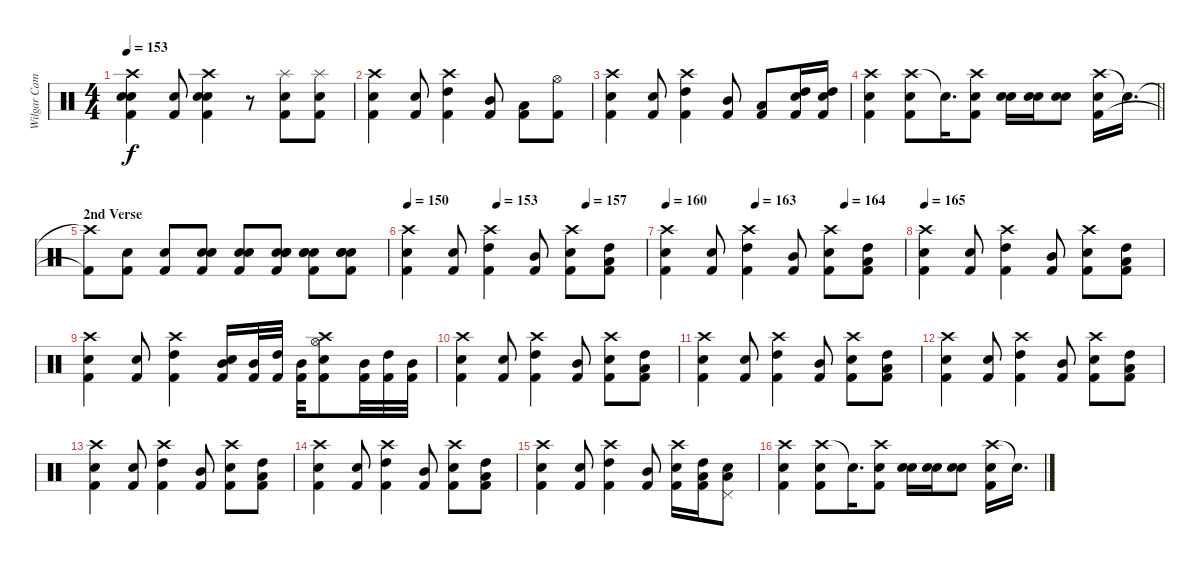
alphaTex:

\track ("Wilgar Campbell" "Wilgar Cam") {instrument percussion}
\staff {score}
\articulation defaults
\ts (4 4)
\tempo 153
\clef neutral
\ks c
("Crash high (hit)" "Snare (hit) 2" "Snare (hit) 2" "Kick (hit) 2").4{dy f} ("Electric Snare (hit)" "Kick (hit) 2").8 ("Crash high (hit)" "Snare (hit) 2" "Snare (hit) 2" "Kick (hit) 2").4 r.8 ("Splash (hit)" "Kick (hit) 2" "Electric Snare (hit)").8 ("Splash (hit)" "Snare (hit) 2" "Kick (hit) 2").8 |
("Crash high (hit)" "Electric Snare (hit)" "Kick (hit) 2").4 ("Snare (hit) 2" "Kick (hit) 2").8 ("Crash high (hit)" "High Tom (hit)" "Kick (hit) 2").4 ("Mid Tom (hit)" "Kick (hit) 2").8 ("Low Tom (hit)" "Kick (hit) 2").8 ("Hi-Hat (open)" "Kick (hit) 2").8 |
("Crash high (hit)" "Electric Snare (hit)" "Kick (hit) 2").4 ("Snare (hit) 2" "Kick (hit) 2").8 ("Crash high (hit)" "High Tom (hit)" "Kick (hit) 2").4 ("Mid Tom (hit)" "Kick (hit) 2").8 ("Low Tom (hit)" "Kick (hit) 2").8 ("High Tom (hit)" "Electric Snare (hit)" "Kick (hit) 2").16 ("High Tom (hit)" "Electric Snare (hit)" "Kick (hit) 2").16 |
\barLineRight lightlight
("Crash high (hit)" "Kick (hit) 2" "Snare (hit) 2").4 ("Crash high (hit)" "Kick (hit) 2" "Snare (hit) 2").8 "Snare (hit)"{t}.16{d} ("Crash high (hit)" "Electric Snare (hit)" "Kick (hit) 2").8 ("Snare (hit) 2" "Snare (hit) 2").16 ("Electric Snare (hit)" "Electric Snare (hit)").16 ("Snare (hit) 2" "Snare (hit) 2").8 ("Crash high (hit)" "Kick (hit) 2" "Electric Snare (hit)").16 "Snare (hit)"{t}.16{d} |
\section ("" "2nd Verse")
("Crash high (hit)"{t} "Kick (hit) 2"{t}).8 ("Kick (hit) 2" "Electric Snare (hit)").8 ("Kick (hit) 2" "Electric Snare (hit)").8 ("Kick (hit) 2" "Electric Snare (hit)" "Electric Snare (hit)").8 ("Kick (hit) 2" "Electric Snare (hit)" "Electric Snare (hit)").8 ("Kick (hit) 2" "Electric Snare (hit)" "Electric Snare (hit)" "Snare (hit) 2").8 ("Kick (hit) 2" "Electric Snare (hit)" "Electric Snare (hit)" "Snare (hit) 2").8 ("Kick (hit) 2" "Electric Snare (hit)" "Electric Snare (hit)" "Snare (hit) 2").8 |
\tempo 150
\tempo (153 0.375)
\tempo (157 0.75)
("Crash high (hit)" "Electric Snare (hit)" "Kick (hit) 2").4 ("Snare (hit) 2" "Kick (hit) 2").8 ("Crash high (hit)" "High Tom (hit)" "Kick (hit) 2").4 ("Mid Tom (hit)" "Kick (hit) 2").8 ("Crash high (hit)" "Electric Snare (hit)" "Kick (hit) 2").8 ("High Tom (hit)" "Kick (hit) 2" "Low Tom (hit)").8 |
\tempo 160
\tempo (163 0.375)
\tempo (164 0.75)
("Crash high (hit)" "Electric Snare (hit)" "Kick (hit) 2").4 ("Snare (hit) 2" "Kick (hit) 2").8 ("Crash high (hit)" "High Tom (hit)" "Kick (hit) 2").4 ("Mid Tom (hit)" "Kick (hit) 2").8 ("Crash high (hit)" "Electric Snare (hit)" "Kick (hit) 2").8 ("High Tom (hit)" "Kick (hit) 2" "Low Tom (hit)").8 |
\tempo 165
("Crash high (hit)" "Electric Snare (hit)" "Kick (hit) 2").4 ("Snare (hit) 2" "Kick (hit) 2").8 ("Crash high (hit)" "High Tom (hit)" "Kick (hit) 2").4 ("Mid Tom (hit)" "Kick (hit) 2").8 ("Crash high (hit)" "Electric Snare (hit)" "Kick (hit) 2").8 ("High Tom (hit)" "Kick (hit) 2" "Low Tom (hit)").8 |
("Crash high (hit)" "Electric Snare (hit)" "Kick (hit) 2").4 ("Snare (hit) 2" "Kick (hit) 2").8 ("Crash high (hit)" "High Tom (hit)" "Kick (hit) 2").4 ("Snare (hit) 2" "Mid Tom (hit)" "Kick (hit) 2").16 ("Mid Tom (hit)" "Kick (hit) 2").32 ("High Tom (hit)" "Kick (hit) 2").32 ("Mid Tom (hit)" "Kick (hit) 2").32 ("Crash high (hit)" "Electric Snare (hit)" "Hi-Hat (open)" "Kick (hit) 2").8 ("Mid Tom (hit)" "Kick (hit) 2").32 ("High Tom (hit)" "Kick (hit) 2").32 ("Mid Tom (hit)" "Kick (hit) 2").32 |
("Crash high (hit)" "Electric Snare (hit)" "Kick (hit) 2").4 ("Snare (hit) 2" "Kick (hit) 2").8 ("Crash high (hit)" "High Tom (hit)" "Kick (hit) 2").4 ("Mid Tom (hit)" "Kick (hit) 2").8 ("Crash high (hit)" "Electric Snare (hit)" "Kick (hit) 2").8 ("High Tom (hit)" "Kick (hit) 2" "Low Tom (hit)").8 |
("Crash high (hit)" "Electric Snare (hit)" "Kick (hit) 2").4 ("Snare (hit) 2" "Kick (hit) 2").8 ("Crash high (hit)" "High Tom (hit)" "Kick (hit) 2").4 ("Mid Tom (hit)" "Kick (hit) 2").8 ("Crash high (hit)" "Electric Snare (hit)" "Kick (hit) 2").8 ("High Tom (hit)" "Kick (hit) 2" "Low Tom (hit)").8 |
("Crash high (hit)" "Electric Snare (hit)" "Kick (hit) 2").4 ("Snare (hit) 2" "Kick (hit) 2").8 ("Crash high (hit)" "High Tom (hit)" "Kick (hit) 2").4 ("Mid Tom (hit)" "Kick (hit) 2").8 ("Crash high (hit)" "Electric Snare (hit)" "Kick (hit) 2").8 ("High Tom (hit)" "Kick (hit) 2" "Low Tom (hit)").8 |
("Crash high (hit)" "Electric Snare (hit)" "Kick (hit) 2").4 ("Snare (hit) 2" "Kick (hit) 2").8 ("Crash high (hit)" "High Tom (hit)" "Kick (hit) 2").4 ("Mid Tom (hit)" "Kick (hit) 2").8 ("Crash high (hit)" "Electric Snare (hit)" "Kick (hit) 2").8 ("High Tom (hit)" "Kick (hit) 2" "Low Tom (hit)").8 |
("Crash high (hit)" "Electric Snare (hit)" "Kick (hit) 2").4 ("Snare (hit) 2" "Kick (hit) 2").8 ("Crash high (hit)" "High Tom (hit)" "Kick (hit) 2").4 ("Mid Tom (hit)" "Kick (hit) 2").8 ("Crash high (hit)" "Electric Snare (hit)" "Kick (hit) 2").8 ("High Tom (hit)" "Kick (hit) 2" "Low Tom (hit)").8 |
("Crash high (hit)" "Electric Snare (hit)" "Kick (hit) 2").4 ("Snare (hit) 2" "Kick (hit) 2").8 ("Crash high (hit)" "High Tom (hit)" "Kick (hit) 2").4 ("Mid Tom (hit)" "Kick (hit) 2").8 ("Crash high (hit)" "Electric Snare (hit)" "Kick (hit) 2").16 ("High Tom (hit)" "Kick (hit) 2" "Low Tom (hit)").16 ("Low Tom (hit)" "Pedal Hi-Hat (hit)" "Electric Snare (hit)").8 |
("Crash high (hit)" "Kick (hit) 2" "Snare (hit) 2").4 ("Crash high (hit)" "Kick (hit) 2" "Snare (hit) 2").8 "Snare (hit)"{t}.16{d} ("Crash high (hit)" "Electric Snare (hit)" "Kick (hit) 2").8 ("Snare (hit) 2" "Snare (hit) 2").16 ("Electric Snare (hit)" "Electric Snare (hit)").16 ("Snare (hit) 2" "Snare (hit) 2").8 ("Crash high (hit)" "Kick (hit) 2" "Electric Snare (hit)").16 "Snare (hit)"{t}.16{d}
